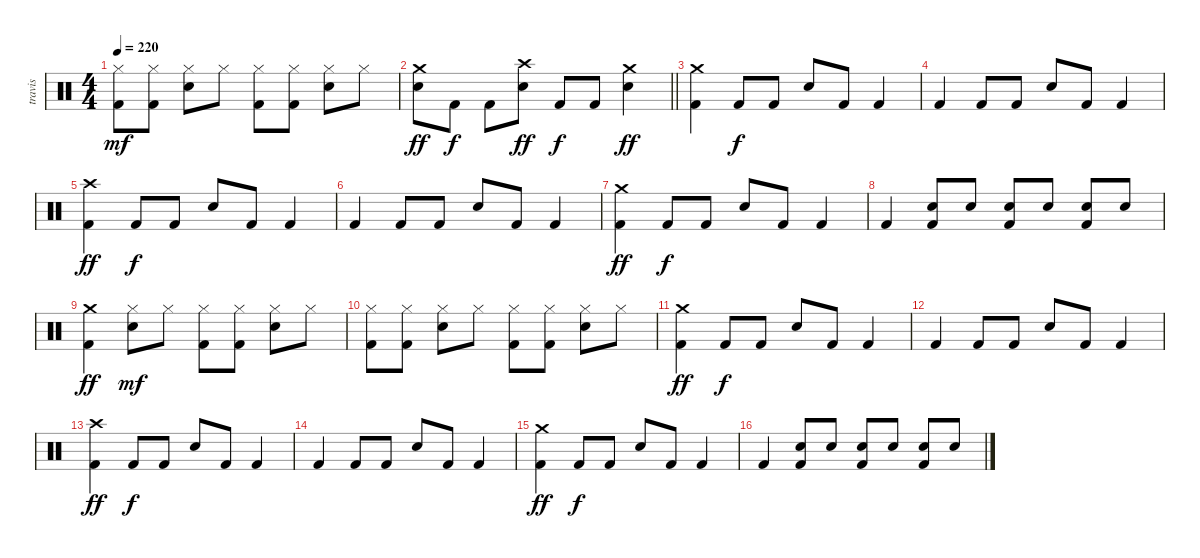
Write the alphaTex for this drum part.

\track ("travis" "travis") {instrument percussion}
\staff {score}
\articulation defaults
\ts (4 4)
\tempo 220
\clef neutral
\ks c
("Hi-Hat (closed)" "Kick (hit) 2").8{dy mf} ("Hi-Hat (closed)" "Kick (hit) 2").8 ("Hi-Hat (closed)" "Electric Snare (hit)").8 "Hi-Hat (closed)".8 ("Hi-Hat (closed)" "Kick (hit) 2").8 ("Hi-Hat (closed)" "Kick (hit) 2").8 ("Hi-Hat (closed)" "Electric Snare (hit)").8 "Hi-Hat (closed)".8 |
\barLineRight lightlight
("Crash medium (hit)" "Electric Snare (hit)").8{dy ff} "Kick (hit) 2".8{dy f} "Kick (hit) 2".8 ("Crash high (hit)" "Electric Snare (hit)").8{dy ff} "Kick (hit) 2".8{dy f} "Kick (hit) 2".8 ("Crash medium (hit)" "Electric Snare (hit)").4{dy ff} |
("Crash medium (hit)" "Kick (hit) 2").4 "Kick (hit) 2".8{dy f} "Kick (hit) 2".8 "Electric Snare (hit)".8 "Kick (hit) 2".8 "Kick (hit) 2".4 |
"Kick (hit) 2".4 "Kick (hit) 2".8 "Kick (hit) 2".8 "Electric Snare (hit)".8 "Kick (hit) 2".8 "Kick (hit) 2".4 |
("Crash high (hit)" "Kick (hit) 2").4{dy ff} "Kick (hit) 2".8{dy f} "Kick (hit) 2".8 "Electric Snare (hit)".8 "Kick (hit) 2".8 "Kick (hit) 2".4 |
"Kick (hit) 2".4 "Kick (hit) 2".8 "Kick (hit) 2".8 "Electric Snare (hit)".8 "Kick (hit) 2".8 "Kick (hit) 2".4 |
("Crash medium (hit)" "Kick (hit) 2").4{dy ff} "Kick (hit) 2".8{dy f} "Kick (hit) 2".8 "Electric Snare (hit)".8 "Kick (hit) 2".8 "Kick (hit) 2".4 |
"Kick (hit) 2".4 ("Electric Snare (hit)" "Kick (hit) 2").8 "Electric Snare (hit)".8 ("Electric Snare (hit)" "Kick (hit) 2").8 "Electric Snare (hit)".8 ("Electric Snare (hit)" "Kick (hit) 2").8 "Electric Snare (hit)".8 |
("Crash medium (hit)" "Kick (hit) 2").4{dy ff} ("Hi-Hat (closed)" "Electric Snare (hit)").8{dy mf} "Hi-Hat (closed)".8 ("Hi-Hat (closed)" "Kick (hit) 2").8 ("Hi-Hat (closed)" "Kick (hit) 2").8 ("Hi-Hat (closed)" "Electric Snare (hit)").8 "Hi-Hat (closed)".8 |
("Hi-Hat (closed)" "Kick (hit) 2").8 ("Hi-Hat (closed)" "Kick (hit) 2").8 ("Hi-Hat (closed)" "Electric Snare (hit)").8 "Hi-Hat (closed)".8 ("Hi-Hat (closed)" "Kick (hit) 2").8 ("Hi-Hat (closed)" "Kick (hit) 2").8 ("Hi-Hat (closed)" "Electric Snare (hit)").8 "Hi-Hat (closed)".8 |
("Crash medium (hit)" "Kick (hit) 2").4{dy ff} "Kick (hit) 2".8{dy f} "Kick (hit) 2".8 "Electric Snare (hit)".8 "Kick (hit) 2".8 "Kick (hit) 2".4 |
"Kick (hit) 2".4 "Kick (hit) 2".8 "Kick (hit) 2".8 "Electric Snare (hit)".8 "Kick (hit) 2".8 "Kick (hit) 2".4 |
("Crash high (hit)" "Kick (hit) 2").4{dy ff} "Kick (hit) 2".8{dy f} "Kick (hit) 2".8 "Electric Snare (hit)".8 "Kick (hit) 2".8 "Kick (hit) 2".4 |
"Kick (hit) 2".4 "Kick (hit) 2".8 "Kick (hit) 2".8 "Electric Snare (hit)".8 "Kick (hit) 2".8 "Kick (hit) 2".4 |
("Crash medium (hit)" "Kick (hit) 2").4{dy ff} "Kick (hit) 2".8{dy f} "Kick (hit) 2".8 "Electric Snare (hit)".8 "Kick (hit) 2".8 "Kick (hit) 2".4 |
"Kick (hit) 2".4 ("Electric Snare (hit)" "Kick (hit) 2").8 "Electric Snare (hit)".8 ("Electric Snare (hit)" "Kick (hit) 2").8 "Electric Snare (hit)".8 ("Electric Snare (hit)" "Kick (hit) 2").8 "Electric Snare (hit)".8
